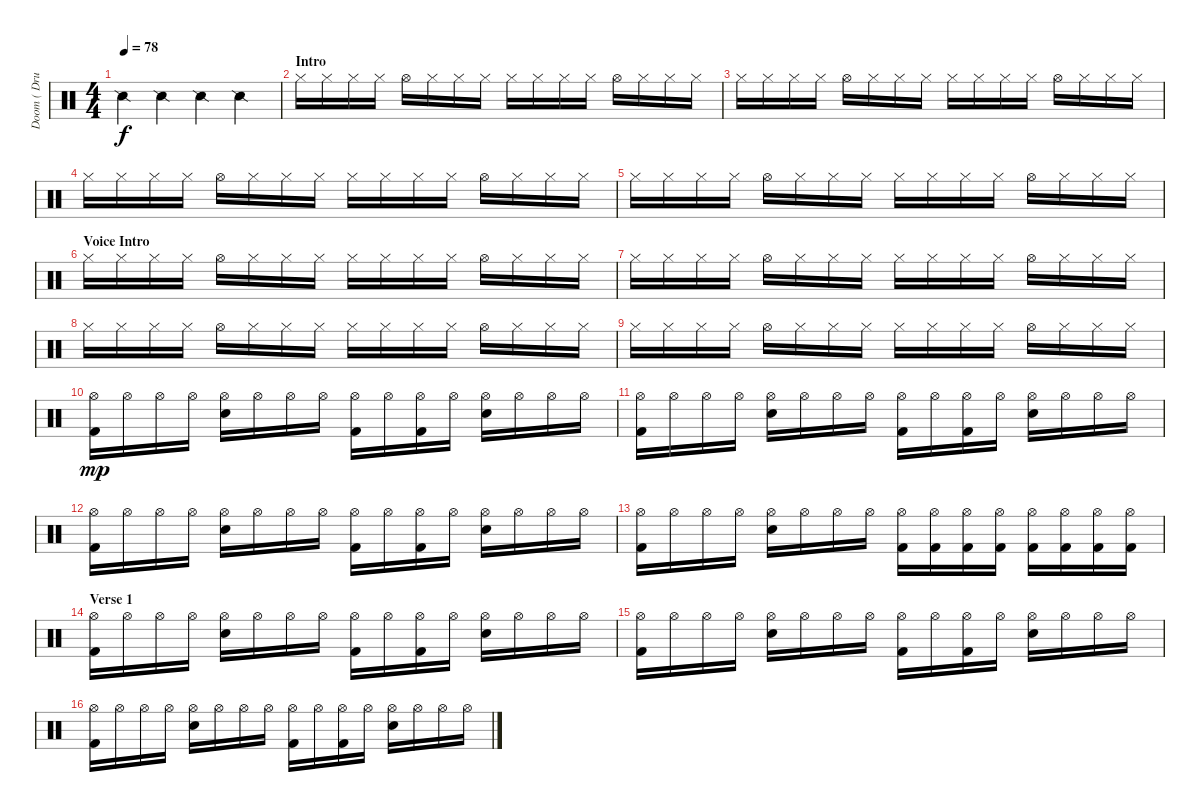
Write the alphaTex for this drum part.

\track ("Doom ( Drums )" "Doom ( Dru") {instrument percussion}
\staff {score}
\articulation defaults
\ts (4 4)
\tempo 78
\clef neutral
\ks c "Snare (side stick) 2".4{dy f} "Snare (side stick) 2".4 "Snare (side stick) 2".4 "Snare (side stick) 2".4
|
\section ("" "Intro")
"Hi-Hat (closed)".16 "Hi-Hat (closed)".16 "Hi-Hat (closed)".16 "Hi-Hat (closed)".16 "Hi-Hat (open)".16 "Hi-Hat (closed)".16 "Hi-Hat (closed)".16 "Hi-Hat (closed)".16 "Hi-Hat (closed)".16 "Hi-Hat (closed)".16 "Hi-Hat (closed)".16 "Hi-Hat (closed)".16 "Hi-Hat (open)".16 "Hi-Hat (closed)".16 "Hi-Hat (closed)".16 "Hi-Hat (closed)".16 |
"Hi-Hat (closed)".16 "Hi-Hat (closed)".16 "Hi-Hat (closed)".16 "Hi-Hat (closed)".16 "Hi-Hat (open)".16 "Hi-Hat (closed)".16 "Hi-Hat (closed)".16 "Hi-Hat (closed)".16 "Hi-Hat (closed)".16 "Hi-Hat (closed)".16 "Hi-Hat (closed)".16 "Hi-Hat (closed)".16 "Hi-Hat (open)".16 "Hi-Hat (closed)".16 "Hi-Hat (closed)".16 "Hi-Hat (closed)".16 |
"Hi-Hat (closed)".16 "Hi-Hat (closed)".16 "Hi-Hat (closed)".16 "Hi-Hat (closed)".16 "Hi-Hat (open)".16 "Hi-Hat (closed)".16 "Hi-Hat (closed)".16 "Hi-Hat (closed)".16 "Hi-Hat (closed)".16 "Hi-Hat (closed)".16 "Hi-Hat (closed)".16 "Hi-Hat (closed)".16 "Hi-Hat (open)".16 "Hi-Hat (closed)".16 "Hi-Hat (closed)".16 "Hi-Hat (closed)".16 |
"Hi-Hat (closed)".16 "Hi-Hat (closed)".16 "Hi-Hat (closed)".16 "Hi-Hat (closed)".16 "Hi-Hat (open)".16 "Hi-Hat (closed)".16 "Hi-Hat (closed)".16 "Hi-Hat (closed)".16 "Hi-Hat (closed)".16 "Hi-Hat (closed)".16 "Hi-Hat (closed)".16 "Hi-Hat (closed)".16 "Hi-Hat (open)".16 "Hi-Hat (closed)".16 "Hi-Hat (closed)".16 "Hi-Hat (closed)".16 |
\section ("" "Voice Intro")
"Hi-Hat (closed)".16 "Hi-Hat (closed)".16 "Hi-Hat (closed)".16 "Hi-Hat (closed)".16 "Hi-Hat (open)".16 "Hi-Hat (closed)".16 "Hi-Hat (closed)".16 "Hi-Hat (closed)".16 "Hi-Hat (closed)".16 "Hi-Hat (closed)".16 "Hi-Hat (closed)".16 "Hi-Hat (closed)".16 "Hi-Hat (open)".16 "Hi-Hat (closed)".16 "Hi-Hat (closed)".16 "Hi-Hat (closed)".16 |
"Hi-Hat (closed)".16 "Hi-Hat (closed)".16 "Hi-Hat (closed)".16 "Hi-Hat (closed)".16 "Hi-Hat (open)".16 "Hi-Hat (closed)".16 "Hi-Hat (closed)".16 "Hi-Hat (closed)".16 "Hi-Hat (closed)".16 "Hi-Hat (closed)".16 "Hi-Hat (closed)".16 "Hi-Hat (closed)".16 "Hi-Hat (open)".16 "Hi-Hat (closed)".16 "Hi-Hat (closed)".16 "Hi-Hat (closed)".16 |
"Hi-Hat (closed)".16 "Hi-Hat (closed)".16 "Hi-Hat (closed)".16 "Hi-Hat (closed)".16 "Hi-Hat (open)".16 "Hi-Hat (closed)".16 "Hi-Hat (closed)".16 "Hi-Hat (closed)".16 "Hi-Hat (closed)".16 "Hi-Hat (closed)".16 "Hi-Hat (closed)".16 "Hi-Hat (closed)".16 "Hi-Hat (open)".16 "Hi-Hat (closed)".16 "Hi-Hat (closed)".16 "Hi-Hat (closed)".16 |
"Hi-Hat (closed)".16 "Hi-Hat (closed)".16 "Hi-Hat (closed)".16 "Hi-Hat (closed)".16 "Hi-Hat (open)".16 "Hi-Hat (closed)".16 "Hi-Hat (closed)".16 "Hi-Hat (closed)".16 "Hi-Hat (closed)".16 "Hi-Hat (closed)".16 "Hi-Hat (closed)".16 "Hi-Hat (closed)".16 "Hi-Hat (open)".16 "Hi-Hat (closed)".16 "Hi-Hat (closed)".16 "Hi-Hat (closed)".16 |
("Kick (hit) 2" "Hi-Hat (open)").16{dy mp} "Hi-Hat (open)".16 "Hi-Hat (open)".16 "Hi-Hat (open)".16 ("Electric Snare (hit)" "Hi-Hat (open)").16 "Hi-Hat (open)".16 "Hi-Hat (open)".16 "Hi-Hat (open)".16 ("Kick (hit) 2" "Hi-Hat (open)").16 "Hi-Hat (open)".16 ("Kick (hit) 2" "Hi-Hat (open)").16 "Hi-Hat (open)".16 ("Electric Snare (hit)" "Hi-Hat (open)").16 "Hi-Hat (open)".16 "Hi-Hat (open)".16 "Hi-Hat (open)".16 |
("Kick (hit) 2" "Hi-Hat (open)").16 "Hi-Hat (open)".16 "Hi-Hat (open)".16 "Hi-Hat (open)".16 ("Electric Snare (hit)" "Hi-Hat (open)").16 "Hi-Hat (open)".16 "Hi-Hat (open)".16 "Hi-Hat (open)".16 ("Kick (hit) 2" "Hi-Hat (open)").16 "Hi-Hat (open)".16 ("Kick (hit) 2" "Hi-Hat (open)").16 "Hi-Hat (open)".16 ("Electric Snare (hit)" "Hi-Hat (open)").16 "Hi-Hat (open)".16 "Hi-Hat (open)".16 "Hi-Hat (open)".16 |
("Kick (hit) 2" "Hi-Hat (open)").16 "Hi-Hat (open)".16 "Hi-Hat (open)".16 "Hi-Hat (open)".16 ("Electric Snare (hit)" "Hi-Hat (open)").16 "Hi-Hat (open)".16 "Hi-Hat (open)".16 "Hi-Hat (open)".16 ("Kick (hit) 2" "Hi-Hat (open)").16 "Hi-Hat (open)".16 ("Kick (hit) 2" "Hi-Hat (open)").16 "Hi-Hat (open)".16 ("Electric Snare (hit)" "Hi-Hat (open)").16 "Hi-Hat (open)".16 "Hi-Hat (open)".16 "Hi-Hat (open)".16 |
("Kick (hit) 2" "Hi-Hat (open)").16 "Hi-Hat (open)".16 "Hi-Hat (open)".16 "Hi-Hat (open)".16 ("Electric Snare (hit)" "Hi-Hat (open)").16 "Hi-Hat (open)".16 "Hi-Hat (open)".16 "Hi-Hat (open)".16 ("Kick (hit) 2" "Hi-Hat (open)").16 ("Kick (hit) 2" "Hi-Hat (open)").16 ("Kick (hit) 2" "Hi-Hat (open)").16 ("Kick (hit) 2" "Hi-Hat (open)").16 ("Kick (hit) 2" "Hi-Hat (open)").16 ("Kick (hit) 2" "Hi-Hat (open)").16 ("Kick (hit) 2" "Hi-Hat (open)").16 ("Kick (hit) 2" "Hi-Hat (open)").16 |
\section ("" "Verse 1")
("Kick (hit) 2" "Hi-Hat (open)").16 "Hi-Hat (open)".16 "Hi-Hat (open)".16 "Hi-Hat (open)".16 ("Electric Snare (hit)" "Hi-Hat (open)").16 "Hi-Hat (open)".16 "Hi-Hat (open)".16 "Hi-Hat (open)".16 ("Kick (hit) 2" "Hi-Hat (open)").16 "Hi-Hat (open)".16 ("Kick (hit) 2" "Hi-Hat (open)").16 "Hi-Hat (open)".16 ("Electric Snare (hit)" "Hi-Hat (open)").16 "Hi-Hat (open)".16 "Hi-Hat (open)".16 "Hi-Hat (open)".16 |
("Kick (hit) 2" "Hi-Hat (open)").16 "Hi-Hat (open)".16 "Hi-Hat (open)".16 "Hi-Hat (open)".16 ("Electric Snare (hit)" "Hi-Hat (open)").16 "Hi-Hat (open)".16 "Hi-Hat (open)".16 "Hi-Hat (open)".16 ("Kick (hit) 2" "Hi-Hat (open)").16 "Hi-Hat (open)".16 ("Kick (hit) 2" "Hi-Hat (open)").16 "Hi-Hat (open)".16 ("Electric Snare (hit)" "Hi-Hat (open)").16 "Hi-Hat (open)".16 "Hi-Hat (open)".16 "Hi-Hat (open)".16 |
("Kick (hit) 2" "Hi-Hat (open)").16 "Hi-Hat (open)".16 "Hi-Hat (open)".16 "Hi-Hat (open)".16 ("Electric Snare (hit)" "Hi-Hat (open)").16 "Hi-Hat (open)".16 "Hi-Hat (open)".16 "Hi-Hat (open)".16 ("Kick (hit) 2" "Hi-Hat (open)").16 "Hi-Hat (open)".16 ("Kick (hit) 2" "Hi-Hat (open)").16 "Hi-Hat (open)".16 ("Electric Snare (hit)" "Hi-Hat (open)").16 "Hi-Hat (open)".16 "Hi-Hat (open)".16 "Hi-Hat (open)".16
